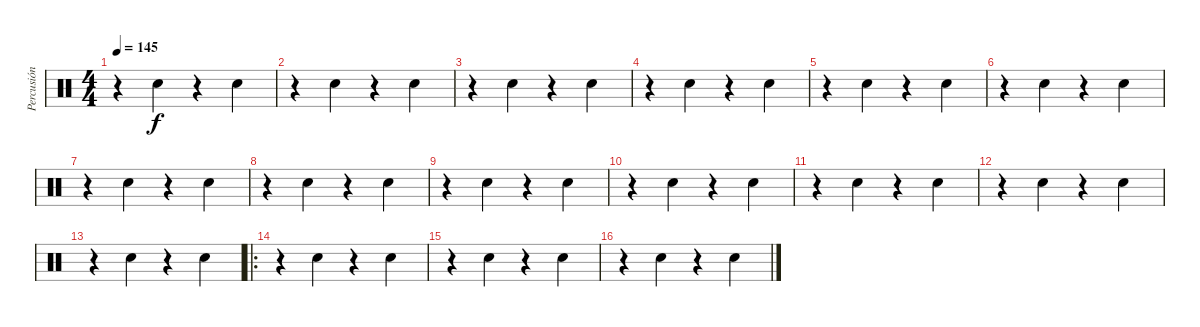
\track ("Percusión" "Percusión") {instrument percussion}
\staff {score}
\articulation defaults
\ts (4 4)
\tempo 145
\clef neutral
\ks c
r.4{dy f} "Snare (hit) 2".4 r.4 "Snare (hit) 2".4 |
r.4 "Snare (hit) 2".4 r.4 "Snare (hit) 2".4 |
r.4 "Snare (hit) 2".4 r.4 "Snare (hit) 2".4 |
r.4 "Snare (hit) 2".4 r.4 "Snare (hit) 2".4 |
r.4 "Snare (hit) 2".4 r.4 "Snare (hit) 2".4 |
r.4 "Snare (hit) 2".4 r.4 "Snare (hit) 2".4 |
r.4 "Snare (hit) 2".4 r.4 "Snare (hit) 2".4 |
r.4 "Snare (hit) 2".4 r.4 "Snare (hit) 2".4 |
r.4 "Snare (hit) 2".4 r.4 "Snare (hit) 2".4 |
r.4 "Snare (hit) 2".4 r.4 "Snare (hit) 2".4 |
r.4 "Snare (hit) 2".4 r.4 "Snare (hit) 2".4 |
r.4 "Snare (hit) 2".4 r.4 "Snare (hit) 2".4 |
r.4 "Snare (hit) 2".4 r.4 "Snare (hit) 2".4 |
\ro
r.4 "Snare (hit) 2".4 r.4 "Snare (hit) 2".4 |
r.4 "Snare (hit) 2".4 r.4 "Snare (hit) 2".4 |
r.4 "Snare (hit) 2".4 r.4 "Snare (hit) 2".4
